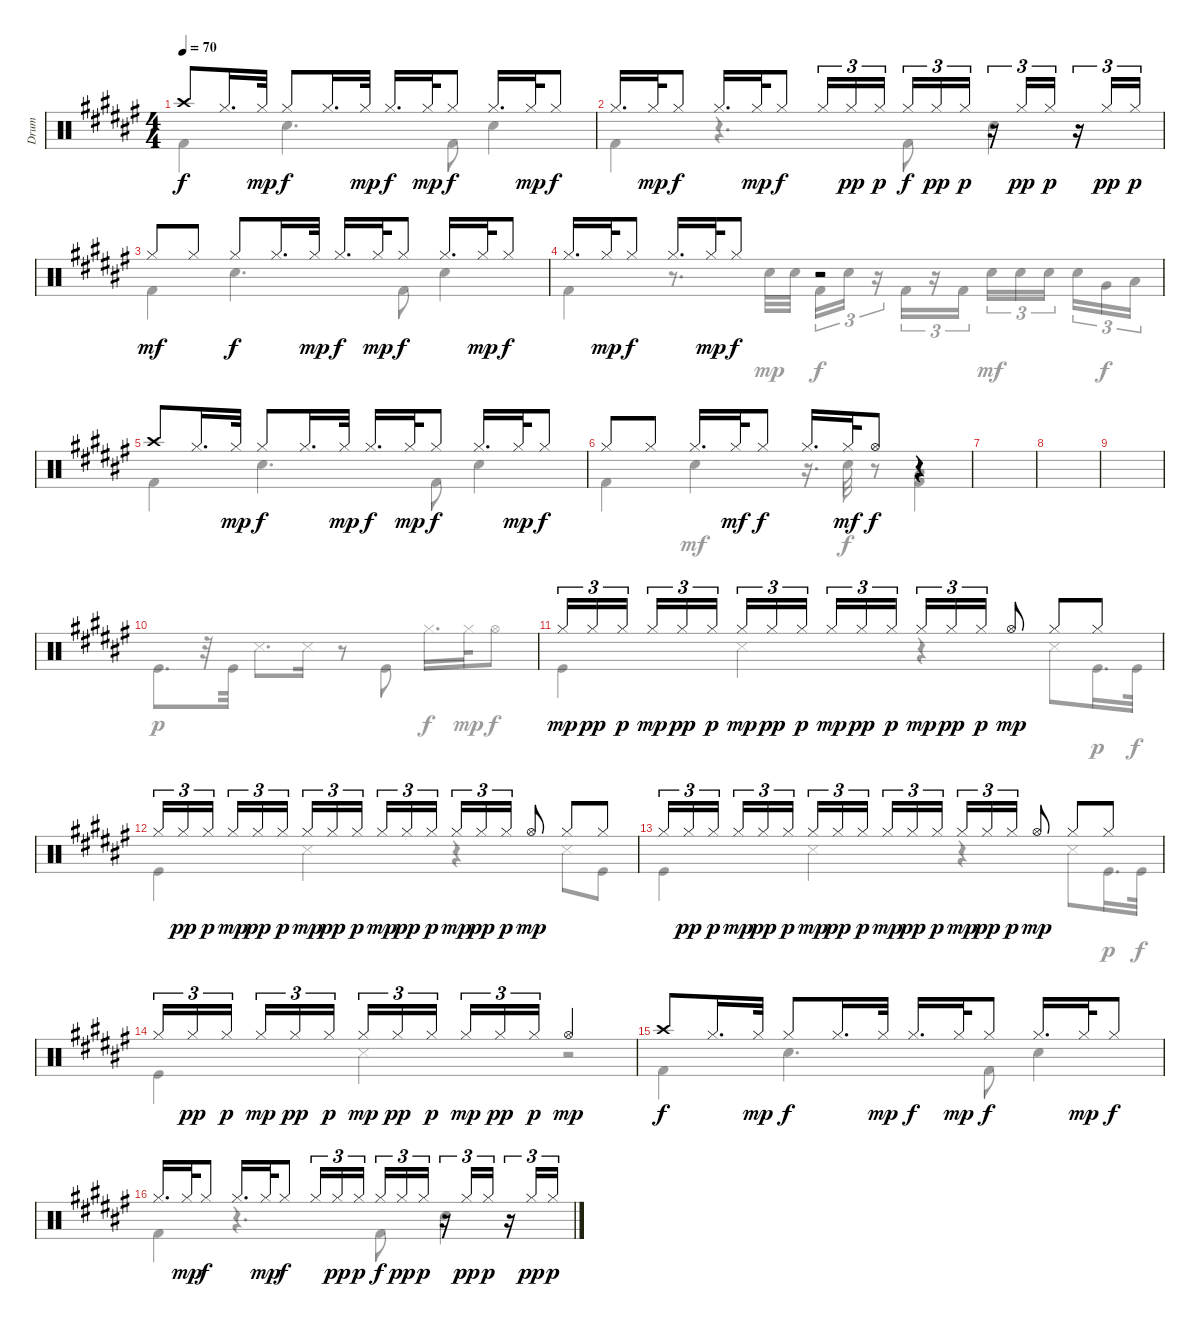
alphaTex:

\track ("Drum" "Drum") {instrument percussion}
\staff {score}
\articulation defaults
\voice
\ts (4 4)
\tempo 70
\clef neutral
\ks f# "Crash high (hit)".8{dy f} "Hi-Hat (closed)".16{d} "Hi-Hat (closed)".32{dy mp} "Hi-Hat (closed)".8{dy f} "Hi-Hat (closed)".16{d} "Hi-Hat (closed)".32{dy mp} "Hi-Hat (closed)".16{d dy f} "Hi-Hat (closed)".32{dy mp} "Hi-Hat (closed)".8{dy f} "Hi-Hat (closed)".16{d} "Hi-Hat (closed)".32{dy mp} "Hi-Hat (closed)".8{dy f}
|
"Hi-Hat (closed)".16{d} "Hi-Hat (closed)".32{dy mp} "Hi-Hat (closed)".8{dy f} "Hi-Hat (closed)".16{d} "Hi-Hat (closed)".32{dy mp} "Hi-Hat (closed)".8{dy f} "Hi-Hat (closed)".16{tu (3 2)} "Hi-Hat (closed)".16{tu (3 2) dy pp} "Hi-Hat (closed)".16{tu (3 2) dy p beam splitsecondary} "Hi-Hat (closed)".16{tu (3 2) dy f} "Hi-Hat (closed)".16{tu (3 2) dy pp} "Hi-Hat (closed)".16{tu (3 2) dy p} r.16{tu (3 2)} "Hi-Hat (closed)".16{tu (3 2) dy pp} "Hi-Hat (closed)".16{tu (3 2) dy p} r.16{tu (3 2)} "Hi-Hat (closed)".16{tu (3 2) dy pp} "Hi-Hat (closed)".16{tu (3 2) dy p} |
"Hi-Hat (closed)".8{dy mf} "Hi-Hat (closed)".8 "Hi-Hat (closed)".8{dy f} "Hi-Hat (closed)".16{d} "Hi-Hat (closed)".32{dy mp} "Hi-Hat (closed)".16{d dy f} "Hi-Hat (closed)".32{dy mp} "Hi-Hat (closed)".8{dy f} "Hi-Hat (closed)".16{d} "Hi-Hat (closed)".32{dy mp} "Hi-Hat (closed)".8{dy f} |
"Hi-Hat (closed)".16{d} "Hi-Hat (closed)".32{dy mp} "Hi-Hat (closed)".8{dy f} "Hi-Hat (closed)".16{d} "Hi-Hat (closed)".32{dy mp} "Hi-Hat (closed)".8{dy f} r.2 |
"Crash high (hit)".8 "Hi-Hat (closed)".16{d} "Hi-Hat (closed)".32{dy mp} "Hi-Hat (closed)".8{dy f} "Hi-Hat (closed)".16{d} "Hi-Hat (closed)".32{dy mp} "Hi-Hat (closed)".16{d dy f} "Hi-Hat (closed)".32{dy mp} "Hi-Hat (closed)".8{dy f} "Hi-Hat (closed)".16{d} "Hi-Hat (closed)".32{dy mp} "Hi-Hat (closed)".8{dy f} |
"Hi-Hat (closed)".8 "Hi-Hat (closed)".8 "Hi-Hat (closed)".16{d} "Hi-Hat (closed)".32{dy mf} "Hi-Hat (closed)".8{dy f} "Hi-Hat (closed)".16{d} "Hi-Hat (closed)".32{dy mf} "Hi-Hat (open)".8{dy f} r.4 |
|
|
|
|
"Hi-Hat (closed)".16{tu (3 2) dy mp} "Hi-Hat (closed)".16{tu (3 2) dy pp} "Hi-Hat (closed)".16{tu (3 2) dy p beam splitsecondary} "Hi-Hat (closed)".16{tu (3 2) dy mp} "Hi-Hat (closed)".16{tu (3 2) dy pp} "Hi-Hat (closed)".16{tu (3 2) dy p} "Hi-Hat (closed)".16{tu (3 2) dy mp} "Hi-Hat (closed)".16{tu (3 2) dy pp} "Hi-Hat (closed)".16{tu (3 2) dy p beam splitsecondary} "Hi-Hat (closed)".16{tu (3 2) dy mp} "Hi-Hat (closed)".16{tu (3 2) dy pp} "Hi-Hat (closed)".16{tu (3 2) dy p} "Hi-Hat (closed)".16{tu (3 2) dy mp} "Hi-Hat (closed)".16{tu (3 2) dy pp} "Hi-Hat (closed)".16{tu (3 2) dy p} "Hi-Hat (open)".8{dy mp} "Hi-Hat (closed)".8 "Hi-Hat (closed)".8 |
"Hi-Hat (closed)".16{tu (3 2)} "Hi-Hat (closed)".16{tu (3 2) dy pp} "Hi-Hat (closed)".16{tu (3 2) dy p beam splitsecondary} "Hi-Hat (closed)".16{tu (3 2) dy mp} "Hi-Hat (closed)".16{tu (3 2) dy pp} "Hi-Hat (closed)".16{tu (3 2) dy p} "Hi-Hat (closed)".16{tu (3 2) dy mp} "Hi-Hat (closed)".16{tu (3 2) dy pp} "Hi-Hat (closed)".16{tu (3 2) dy p beam splitsecondary} "Hi-Hat (closed)".16{tu (3 2) dy mp} "Hi-Hat (closed)".16{tu (3 2) dy pp} "Hi-Hat (closed)".16{tu (3 2) dy p} "Hi-Hat (closed)".16{tu (3 2) dy mp} "Hi-Hat (closed)".16{tu (3 2) dy pp} "Hi-Hat (closed)".16{tu (3 2) dy p} "Hi-Hat (open)".8{dy mp} "Hi-Hat (closed)".8 "Hi-Hat (closed)".8 |
"Hi-Hat (closed)".16{tu (3 2)} "Hi-Hat (closed)".16{tu (3 2) dy pp} "Hi-Hat (closed)".16{tu (3 2) dy p beam splitsecondary} "Hi-Hat (closed)".16{tu (3 2) dy mp} "Hi-Hat (closed)".16{tu (3 2) dy pp} "Hi-Hat (closed)".16{tu (3 2) dy p} "Hi-Hat (closed)".16{tu (3 2) dy mp} "Hi-Hat (closed)".16{tu (3 2) dy pp} "Hi-Hat (closed)".16{tu (3 2) dy p beam splitsecondary} "Hi-Hat (closed)".16{tu (3 2) dy mp} "Hi-Hat (closed)".16{tu (3 2) dy pp} "Hi-Hat (closed)".16{tu (3 2) dy p} "Hi-Hat (closed)".16{tu (3 2) dy mp} "Hi-Hat (closed)".16{tu (3 2) dy pp} "Hi-Hat (closed)".16{tu (3 2) dy p} "Hi-Hat (open)".8{dy mp} "Hi-Hat (closed)".8 "Hi-Hat (closed)".8 |
"Hi-Hat (closed)".16{tu (3 2)} "Hi-Hat (closed)".16{tu (3 2) dy pp} "Hi-Hat (closed)".16{tu (3 2) dy p beam splitsecondary} "Hi-Hat (closed)".16{tu (3 2) dy mp} "Hi-Hat (closed)".16{tu (3 2) dy pp} "Hi-Hat (closed)".16{tu (3 2) dy p} "Hi-Hat (closed)".16{tu (3 2) dy mp} "Hi-Hat (closed)".16{tu (3 2) dy pp} "Hi-Hat (closed)".16{tu (3 2) dy p beam splitsecondary} "Hi-Hat (closed)".16{tu (3 2) dy mp} "Hi-Hat (closed)".16{tu (3 2) dy pp} "Hi-Hat (closed)".16{tu (3 2) dy p} "Hi-Hat (open)".2{dy mp} |
"Crash high (hit)".8{dy f} "Hi-Hat (closed)".16{d} "Hi-Hat (closed)".32{dy mp} "Hi-Hat (closed)".8{dy f} "Hi-Hat (closed)".16{d} "Hi-Hat (closed)".32{dy mp} "Hi-Hat (closed)".16{d dy f} "Hi-Hat (closed)".32{dy mp} "Hi-Hat (closed)".8{dy f} "Hi-Hat (closed)".16{d} "Hi-Hat (closed)".32{dy mp} "Hi-Hat (closed)".8{dy f} |
"Hi-Hat (closed)".16{d} "Hi-Hat (closed)".32{dy mp} "Hi-Hat (closed)".8{dy f} "Hi-Hat (closed)".16{d} "Hi-Hat (closed)".32{dy mp} "Hi-Hat (closed)".8{dy f} "Hi-Hat (closed)".16{tu (3 2)} "Hi-Hat (closed)".16{tu (3 2) dy pp} "Hi-Hat (closed)".16{tu (3 2) dy p beam splitsecondary} "Hi-Hat (closed)".16{tu (3 2) dy f} "Hi-Hat (closed)".16{tu (3 2) dy pp} "Hi-Hat (closed)".16{tu (3 2) dy p} r.16{tu (3 2)} "Hi-Hat (closed)".16{tu (3 2) dy pp} "Hi-Hat (closed)".16{tu (3 2) dy p} r.16{tu (3 2)} "Hi-Hat (closed)".16{tu (3 2) dy pp} "Hi-Hat (closed)".16{tu (3 2) dy p}
\voice
\clef neutral
\ottava regular
\simile none
\ks f# "Kick (hit) 2".4{dy f} "Snare (hit) 2".4{d} "Kick (hit) 2".8 "Snare (hit) 2".4
|
"Kick (hit) 2".4 r.4{d} "Kick (hit) 2".8 "Snare (hit) 2".4 |
"Kick (hit) 2".4 "Snare (hit) 2".4{d} "Kick (hit) 2".8 "Snare (hit) 2".4 |
"Kick (hit) 2".4 r.8{d} "Snare (hit) 2".32{dy mp} "Snare (hit) 2".32 "Kick (hit) 2".16{tu (3 2) dy f} "Snare (hit) 2".16{tu (3 2)} r.16{tu (3 2)} "Kick (hit) 2".16{tu (3 2)} r.16{tu (3 2)} "Kick (hit) 2".16{tu (3 2)} "Snare (hit) 2".16{tu (3 2) dy mf} "Snare (hit) 2".16{tu (3 2)} "Snare (hit) 2".16{tu (3 2) beam splitsecondary} "Snare (hit) 2".16{tu (3 2)} "Very Low Tom (hit)".16{tu (3 2) dy f} "Low Floor Tom (hit)".16{tu (3 2)} |
"Kick (hit) 2".4 "Snare (hit) 2".4{d} "Kick (hit) 2".8 "Snare (hit) 2".4 |
"Kick (hit) 2".4 "Snare (hit) 2".4{dy mf} r.16{d} "Snare (hit) 2".32{dy f} r.8 ("Low Floor Tom (hit)" "Kick (hit) 2").4 |
|
|
|
"Kick (hit)".8{d dy p} r.32 "Kick (hit)".32 "Snare (side stick) 3".8{d} "Snare (side stick) 3".16 r.8 "Kick (hit)".8 "Hi-Hat (closed)".16{d dy f} "Hi-Hat (closed)".32{dy mp} "Hi-Hat (open)".8{dy f} |
"Kick (hit)".4 "Snare (side stick) 3".4 r.4 "Snare (side stick) 3".8 "Kick (hit)".16{d dy p} "Kick (hit)".32{dy f} |
"Kick (hit)".4 "Snare (side stick) 3".4 r.4 "Snare (side stick) 3".8 "Kick (hit)".8 |
"Kick (hit)".4 "Snare (side stick) 3".4 r.4 "Snare (side stick) 3".8 "Kick (hit)".16{d dy p} "Kick (hit)".32{dy f} |
"Kick (hit)".4 "Snare (side stick) 3".4 r.2 |
"Kick (hit) 2".4 "Snare (hit) 2".4{d} "Kick (hit) 2".8 "Snare (hit) 2".4 |
"Kick (hit) 2".4 r.4{d} "Kick (hit) 2".8 "Snare (hit) 2".4
